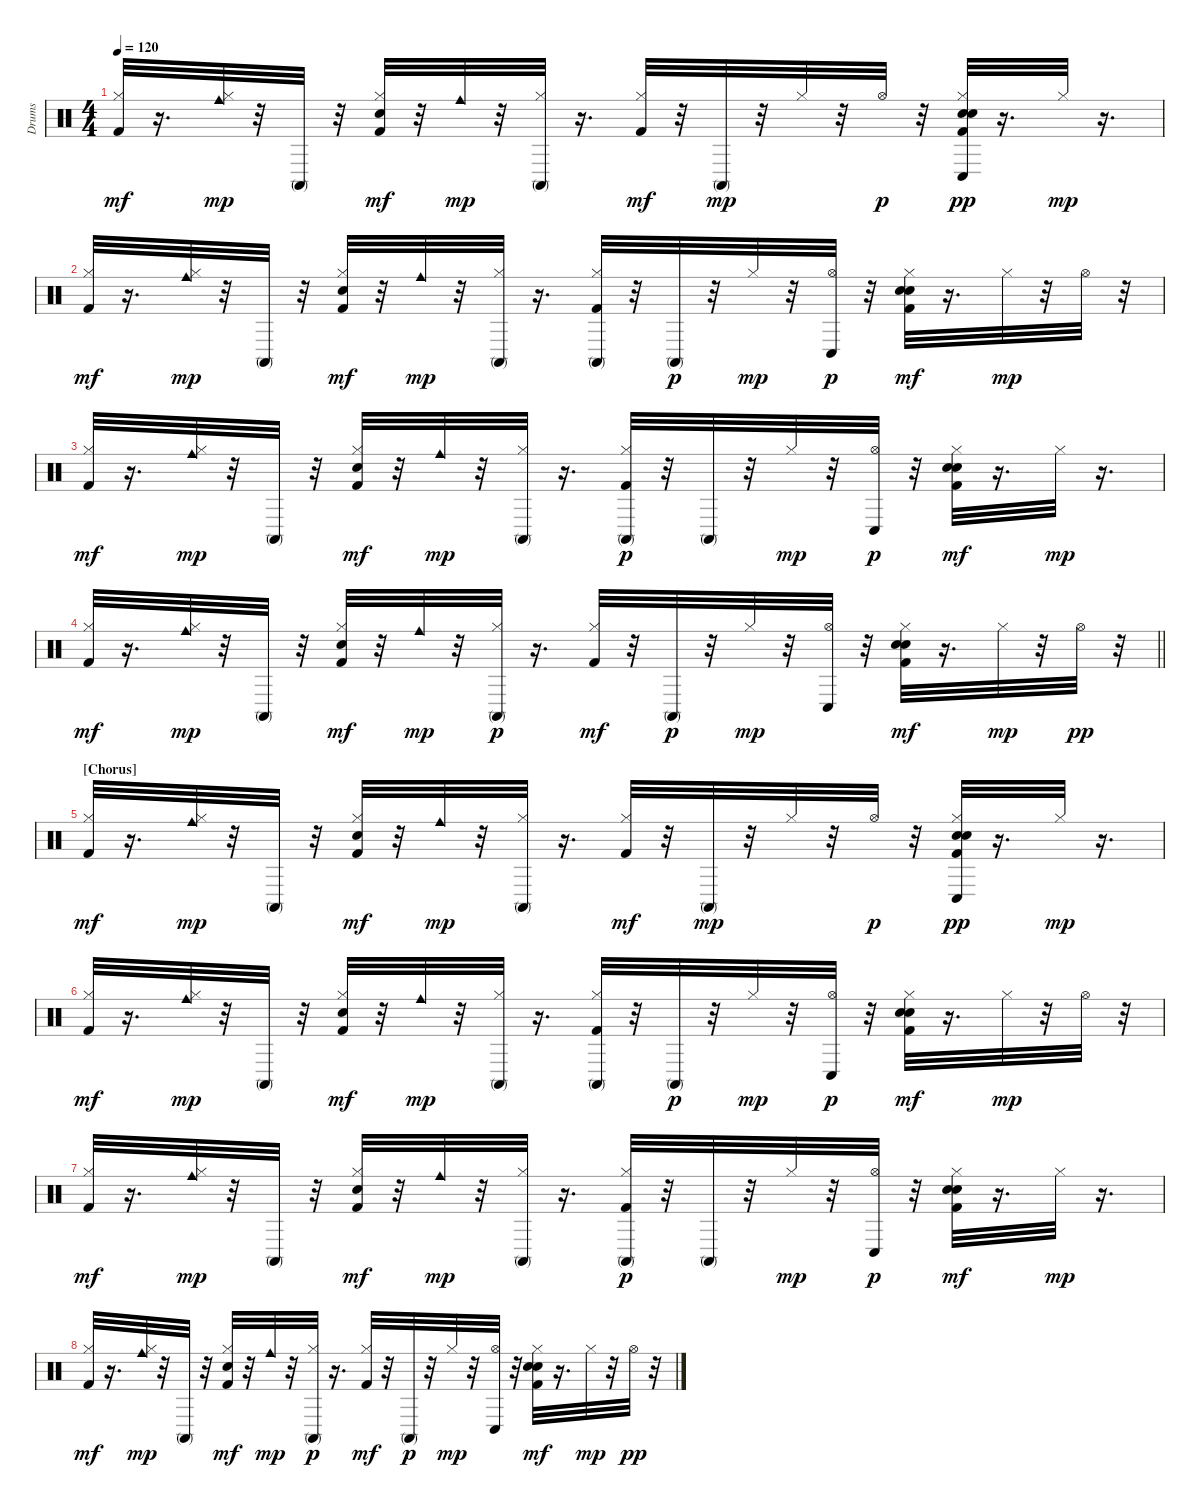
\track ("Drums" "Drums") {instrument percussion}
\staff {score}
\articulation defaults
\ts (4 4)
\tempo 120
\clef neutral
\ks c
("Hi-Hat (closed)" "Kick (hit) 2").32{dy mf} r.16{d} ("Hi-Hat (closed)" "Cowbell medium (hit)").32{dy mp} r.32 "Conga high (mute)".32 r.32 ("Hi-Hat (closed)" "Electric Snare (hit)" "Kick (hit) 2").32{dy mf} r.32 "Cowbell medium (hit)".32{dy mp} r.32 ("Hi-Hat (closed)" "Conga high (mute)").32 r.16{d} ("Hi-Hat (closed)" "Kick (hit) 2").32{dy mf} r.32 "Conga high (mute)".32{dy mp} r.32 "Hi-Hat (closed)".32 r.32 "Hi-Hat (open)".32{dy p} r.32 ("Hi-Hat (closed)" "Kick (hit) 2" "Hand Clap (hit)" "Electric Snare (hit)" "Conga low (hit)").32{dy pp} r.16{d} "Hi-Hat (closed)".32{dy mp} r.16{d} |
("Hi-Hat (closed)" "Kick (hit) 2").32{dy mf} r.16{d} ("Hi-Hat (closed)" "Cowbell medium (hit)").32{dy mp} r.32 "Conga high (mute)".32 r.32 ("Hi-Hat (closed)" "Electric Snare (hit)" "Kick (hit) 2").32{dy mf} r.32 "Cowbell medium (hit)".32{dy mp} r.32 ("Hi-Hat (closed)" "Conga high (mute)").32 r.16{d} ("Hi-Hat (closed)" "Kick (hit) 2" "Conga high (mute)").32 r.32 "Conga high (mute)".32{dy p} r.32 "Hi-Hat (closed)".32{dy mp} r.32 ("Hi-Hat (open)" "Conga low (hit)").32{dy p} r.32 ("Kick (hit) 2" "Hi-Hat (closed)" "Electric Snare (hit)" "Hand Clap (hit)").32{dy mf} r.16{d} "Hi-Hat (closed)".32{dy mp} r.32 "Hi-Hat (open)".32 r.32 |
("Hi-Hat (closed)" "Kick (hit) 2").32{dy mf} r.16{d} ("Hi-Hat (closed)" "Cowbell medium (hit)").32{dy mp} r.32 "Conga high (mute)".32 r.32 ("Hi-Hat (closed)" "Electric Snare (hit)" "Kick (hit) 2").32{dy mf} r.32 "Cowbell medium (hit)".32{dy mp} r.32 ("Hi-Hat (closed)" "Conga high (mute)").32 r.16{d} ("Kick (hit) 2" "Hi-Hat (closed)" "Conga high (mute)").32{dy p} r.32 "Conga high (mute)".32 r.32 "Hi-Hat (closed)".32{dy mp} r.32 ("Hi-Hat (open)" "Conga low (hit)").32{dy p} r.32 ("Hi-Hat (closed)" "Hand Clap (hit)" "Electric Snare (hit)" "Kick (hit) 2").32{dy mf} r.16{d} "Hi-Hat (closed)".32{dy mp} r.16{d} |
\barLineRight lightlight
("Hi-Hat (closed)" "Kick (hit) 2").32{dy mf} r.16{d} ("Hi-Hat (closed)" "Cowbell medium (hit)").32{dy mp} r.32 "Conga high (mute)".32 r.32 ("Hi-Hat (closed)" "Electric Snare (hit)" "Kick (hit) 2").32{dy mf} r.32 "Cowbell medium (hit)".32{dy mp} r.32 ("Hi-Hat (closed)" "Conga high (mute)").32{dy p} r.16{d} ("Hi-Hat (closed)" "Kick (hit) 2").32{dy mf} r.32 "Conga high (mute)".32{dy p} r.32 "Hi-Hat (closed)".32{dy mp} r.32 ("Hi-Hat (open)" "Conga low (hit)").32 r.32 ("Kick (hit) 2" "Hi-Hat (closed)" "Electric Snare (hit)" "Hand Clap (hit)").32{dy mf} r.16{d} "Hi-Hat (closed)".32{dy mp} r.32 "Hi-Hat (open)".32{dy pp} r.32 |
\section ("" "[Chorus]")
("Hi-Hat (closed)" "Kick (hit) 2").32{dy mf} r.16{d} ("Hi-Hat (closed)" "Cowbell medium (hit)").32{dy mp} r.32 "Conga high (mute)".32 r.32 ("Hi-Hat (closed)" "Electric Snare (hit)" "Kick (hit) 2").32{dy mf} r.32 "Cowbell medium (hit)".32{dy mp} r.32 ("Hi-Hat (closed)" "Conga high (mute)").32 r.16{d} ("Hi-Hat (closed)" "Kick (hit) 2").32{dy mf} r.32 "Conga high (mute)".32{dy mp} r.32 "Hi-Hat (closed)".32 r.32 "Hi-Hat (open)".32{dy p} r.32 ("Hi-Hat (closed)" "Kick (hit) 2" "Hand Clap (hit)" "Electric Snare (hit)" "Conga low (hit)").32{dy pp} r.16{d} "Hi-Hat (closed)".32{dy mp} r.16{d} |
("Hi-Hat (closed)" "Kick (hit) 2").32{dy mf} r.16{d} ("Hi-Hat (closed)" "Cowbell medium (hit)").32{dy mp} r.32 "Conga high (mute)".32 r.32 ("Hi-Hat (closed)" "Electric Snare (hit)" "Kick (hit) 2").32{dy mf} r.32 "Cowbell medium (hit)".32{dy mp} r.32 ("Hi-Hat (closed)" "Conga high (mute)").32 r.16{d} ("Hi-Hat (closed)" "Kick (hit) 2" "Conga high (mute)").32 r.32 "Conga high (mute)".32{dy p} r.32 "Hi-Hat (closed)".32{dy mp} r.32 ("Hi-Hat (open)" "Conga low (hit)").32{dy p} r.32 ("Kick (hit) 2" "Hi-Hat (closed)" "Electric Snare (hit)" "Hand Clap (hit)").32{dy mf} r.16{d} "Hi-Hat (closed)".32{dy mp} r.32 "Hi-Hat (open)".32 r.32 |
("Hi-Hat (closed)" "Kick (hit) 2").32{dy mf} r.16{d} ("Hi-Hat (closed)" "Cowbell medium (hit)").32{dy mp} r.32 "Conga high (mute)".32 r.32 ("Hi-Hat (closed)" "Electric Snare (hit)" "Kick (hit) 2").32{dy mf} r.32 "Cowbell medium (hit)".32{dy mp} r.32 ("Hi-Hat (closed)" "Conga high (mute)").32 r.16{d} ("Kick (hit) 2" "Hi-Hat (closed)" "Conga high (mute)").32{dy p} r.32 "Conga high (mute)".32 r.32 "Hi-Hat (closed)".32{dy mp} r.32 ("Hi-Hat (open)" "Conga low (hit)").32{dy p} r.32 ("Hi-Hat (closed)" "Hand Clap (hit)" "Electric Snare (hit)" "Kick (hit) 2").32{dy mf} r.16{d} "Hi-Hat (closed)".32{dy mp} r.16{d} |
("Hi-Hat (closed)" "Kick (hit) 2").32{dy mf} r.16{d} ("Hi-Hat (closed)" "Cowbell medium (hit)").32{dy mp} r.32 "Conga high (mute)".32 r.32 ("Hi-Hat (closed)" "Electric Snare (hit)" "Kick (hit) 2").32{dy mf} r.32 "Cowbell medium (hit)".32{dy mp} r.32 ("Hi-Hat (closed)" "Conga high (mute)").32{dy p} r.16{d} ("Hi-Hat (closed)" "Kick (hit) 2").32{dy mf} r.32 "Conga high (mute)".32{dy p} r.32 "Hi-Hat (closed)".32{dy mp} r.32 ("Hi-Hat (open)" "Conga low (hit)").32 r.32 ("Kick (hit) 2" "Hi-Hat (closed)" "Electric Snare (hit)" "Hand Clap (hit)").32{dy mf} r.16{d} "Hi-Hat (closed)".32{dy mp} r.32 "Hi-Hat (open)".32{dy pp} r.32
